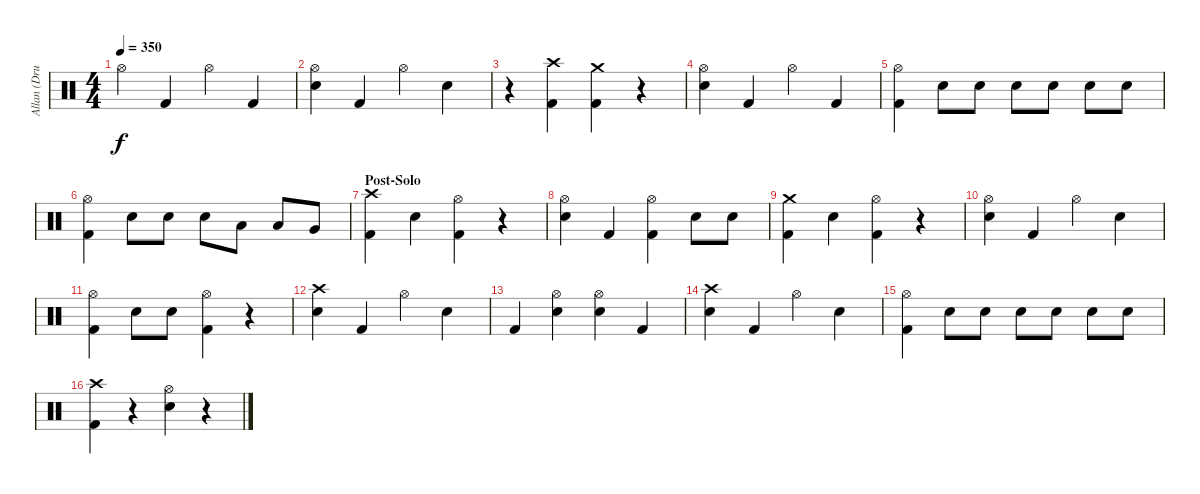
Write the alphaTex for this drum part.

\track ("Allan (Drums)" "Allan (Dru") {instrument percussion}
\staff {score}
\articulation defaults
\ts (4 4)
\tempo 350
\clef neutral
\ks c "Hi-Hat (open)".4{dy f} "Kick (hit) 2".4 "Hi-Hat (open)".4 "Kick (hit) 2".4
|
("Hi-Hat (open)" "Snare (hit) 2").4 "Kick (hit) 2".4 "Hi-Hat (open)".4 "Snare (hit) 2".4 |
r.4 ("Crash high (hit)" "Kick (hit) 2").4 ("Crash medium (hit)" "Kick (hit) 2").4 r.4 |
("Hi-Hat (open)" "Snare (hit) 2").4 "Kick (hit) 2".4 "Hi-Hat (open)".4 "Kick (hit) 2".4 |
("Hi-Hat (open)" "Kick (hit) 2").4 "Snare (hit) 2".8 "Snare (hit) 2".8 "Snare (hit) 2".8 "Snare (hit) 2".8 "Snare (hit) 2".8 "Snare (hit) 2".8 |
("Hi-Hat (open)" "Kick (hit) 2").4 "Snare (hit) 2".8 "Snare (hit) 2".8 "Snare (hit) 2".8 "Low Tom (hit)".8 "Low Tom (hit)".8 "Very Low Tom (hit)".8 |
\section ("" "Post-Solo")
("Crash high (hit)" "Kick (hit) 2").4 "Snare (hit) 2".4 ("Hi-Hat (open)" "Kick (hit) 2").4 r.4 |
("Hi-Hat (open)" "Snare (hit) 2").4 "Kick (hit) 2".4 ("Hi-Hat (open)" "Kick (hit) 2").4 "Snare (hit) 2".8 "Snare (hit) 2".8 |
("Crash medium (hit)" "Kick (hit) 2").4 "Snare (hit) 2".4 ("Hi-Hat (open)" "Kick (hit) 2").4 r.4 |
("Hi-Hat (open)" "Snare (hit) 2").4 "Kick (hit) 2".4 "Hi-Hat (open)".4 "Snare (hit) 2".4 |
("Hi-Hat (open)" "Kick (hit) 2").4 "Snare (hit) 2".8 "Snare (hit) 2".8 ("Hi-Hat (open)" "Kick (hit) 2").4 r.4 |
("Crash high (hit)" "Snare (hit) 2").4 "Kick (hit) 2".4 "Hi-Hat (open)".4 "Snare (hit) 2".4 |
"Kick (hit) 2".4 ("Hi-Hat (open)" "Snare (hit) 2").4 ("Hi-Hat (open)" "Snare (hit) 2").4 "Kick (hit) 2".4 |
("Crash high (hit)" "Snare (hit) 2").4 "Kick (hit) 2".4 "Hi-Hat (open)".4 "Snare (hit) 2".4 |
("Hi-Hat (open)" "Kick (hit) 2").4 "Snare (hit) 2".8 "Snare (hit) 2".8 "Snare (hit) 2".8 "Snare (hit) 2".8 "Snare (hit) 2".8 "Snare (hit) 2".8 |
("Crash high (hit)" "Kick (hit) 2").4 r.4 ("Hi-Hat (open)" "Snare (hit) 2").4 r.4
